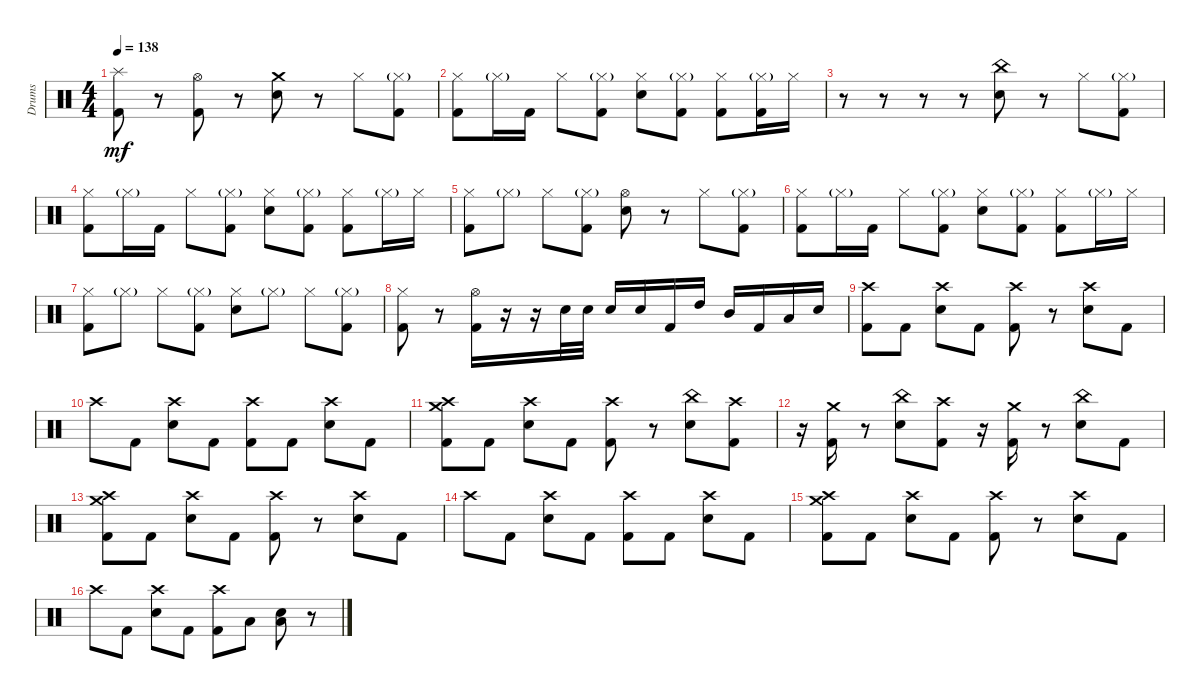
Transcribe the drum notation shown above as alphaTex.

\track ("Drums" "Drums") {instrument percussion}
\staff {score}
\articulation defaults
\ts (4 4)
\tempo 138
\clef neutral
\ks c
("Splash (hit)" "Kick (hit) 2").8{dy mf} r.8 ("Hi-Hat (open)" "Kick (hit) 2").8 r.8 ("Crash medium (hit)" "Snare (hit) 2").8 r.8 "Hi-Hat (closed)".8 ("Hi-Hat (closed)"{g} "Kick (hit) 2").8 |
("Hi-Hat (closed)" "Kick (hit) 2").8 "Hi-Hat (closed)"{g}.16 "Kick (hit) 2".16 "Hi-Hat (closed)".8 ("Hi-Hat (closed)"{g} "Kick (hit) 2").8 ("Hi-Hat (closed)" "Snare (hit) 2").8 ("Hi-Hat (closed)"{g} "Kick (hit) 2").8 ("Hi-Hat (closed)" "Kick (hit) 2").8 ("Hi-Hat (closed)"{g} "Kick (hit) 2").16 "Hi-Hat (closed)".16 |
r.8 r.8 r.8 r.8 ("China (hit)" "Snare (hit) 2").8 r.8 "Hi-Hat (closed)".8 ("Hi-Hat (closed)"{g} "Kick (hit) 2").8 |
("Hi-Hat (closed)" "Kick (hit) 2").8 "Hi-Hat (closed)"{g}.16 "Kick (hit) 2".16 "Hi-Hat (closed)".8 ("Hi-Hat (closed)"{g} "Kick (hit) 2").8 ("Hi-Hat (closed)" "Snare (hit) 2").8 ("Hi-Hat (closed)"{g} "Kick (hit) 2").8 ("Hi-Hat (closed)" "Kick (hit) 2").8 "Hi-Hat (closed)"{g}.16 "Hi-Hat (closed)".16 |
("Hi-Hat (closed)" "Kick (hit) 2").8 "Hi-Hat (closed)"{g}.8 "Hi-Hat (closed)".8 ("Hi-Hat (closed)"{g} "Kick (hit) 2").8 ("Hi-Hat (open)" "Snare (hit) 2").8 r.8 "Hi-Hat (closed)".8 ("Hi-Hat (closed)"{g} "Kick (hit) 2").8 |
("Hi-Hat (closed)" "Kick (hit) 2").8 "Hi-Hat (closed)"{g}.16 "Kick (hit) 2".16 "Hi-Hat (closed)".8 ("Hi-Hat (closed)"{g} "Kick (hit) 2").8 ("Hi-Hat (closed)" "Snare (hit) 2").8 ("Hi-Hat (closed)"{g} "Kick (hit) 2").8 ("Hi-Hat (closed)" "Kick (hit) 2").8 "Hi-Hat (closed)"{g}.16 "Hi-Hat (closed)".16 |
("Hi-Hat (closed)" "Kick (hit) 2").8 "Hi-Hat (closed)"{g}.8 "Hi-Hat (closed)".8 ("Hi-Hat (closed)"{g} "Kick (hit) 2").8 ("Hi-Hat (closed)" "Snare (hit) 2").8 "Hi-Hat (closed)"{g}.8 "Hi-Hat (closed)".8 ("Hi-Hat (closed)"{g} "Kick (hit) 2").8 |
("Hi-Hat (closed)" "Kick (hit) 2").8 r.8 ("Hi-Hat (open)" "Kick (hit) 2").16 r.16 r.16 "Snare (hit) 2".32 "Snare (hit) 2".32 "Snare (hit) 2".16 "Snare (hit) 2".16 "Kick (hit) 2".16 "High Tom (hit)".16 "Mid Tom (hit)".16 "Kick (hit) 2".16 "Low Tom (hit)".16 "Snare (hit) 2".16 |
("Crash high (hit)" "Kick (hit) 2").8 "Kick (hit) 2".8 ("Crash high (hit)" "Snare (hit) 2").8 "Kick (hit) 2".8 ("Crash high (hit)" "Kick (hit) 2").8 r.8 ("Crash high (hit)" "Snare (hit) 2").8 "Kick (hit) 2".8 |
"Crash high (hit)".8 "Kick (hit) 2".8 ("Crash high (hit)" "Snare (hit) 2").8 "Kick (hit) 2".8 ("Crash high (hit)" "Kick (hit) 2").8 "Kick (hit) 2".8 ("Crash high (hit)" "Snare (hit) 2").8 "Kick (hit) 2".8 |
("Crash high (hit)" "Crash medium (hit)" "Kick (hit) 2").8 "Kick (hit) 2".8 ("Crash high (hit)" "Snare (hit) 2").8 "Kick (hit) 2".8 ("Crash high (hit)" "Kick (hit) 2").8 r.8 ("China (hit)" "Snare (hit) 2").8 ("Crash high (hit)" "Kick (hit) 2").8 |
r.16 ("Crash medium (hit)" "Kick (hit) 2").16 r.8 ("China (hit)" "Snare (hit) 2").8 ("Crash high (hit)" "Kick (hit) 2").8 r.16 ("Crash medium (hit)" "Kick (hit) 2").16 r.8 ("China (hit)" "Snare (hit) 2").8 "Kick (hit) 2".8 |
("Crash high (hit)" "Crash medium (hit)" "Kick (hit) 2").8 "Kick (hit) 2".8 ("Crash high (hit)" "Snare (hit) 2").8 "Kick (hit) 2".8 ("Crash high (hit)" "Kick (hit) 2").8 r.8 ("Crash high (hit)" "Snare (hit) 2").8 "Kick (hit) 2".8 |
"Crash high (hit)".8 "Kick (hit) 2".8 ("Crash high (hit)" "Snare (hit) 2").8 "Kick (hit) 2".8 ("Crash high (hit)" "Kick (hit) 2").8 "Kick (hit) 2".8 ("Crash high (hit)" "Snare (hit) 2").8 "Kick (hit) 2".8 |
("Crash high (hit)" "Crash medium (hit)" "Kick (hit) 2").8 "Kick (hit) 2".8 ("Crash high (hit)" "Snare (hit) 2").8 "Kick (hit) 2".8 ("Crash high (hit)" "Kick (hit) 2").8 r.8 ("Crash high (hit)" "Snare (hit) 2").8 "Kick (hit) 2".8 |
"Crash high (hit)".8 "Kick (hit) 2".8 ("Crash high (hit)" "Snare (hit) 2").8 "Kick (hit) 2".8 ("Crash high (hit)" "Kick (hit) 2").8 "Low Tom (hit)".8 ("Snare (hit) 2" "Low Tom (hit)").8 r.8
